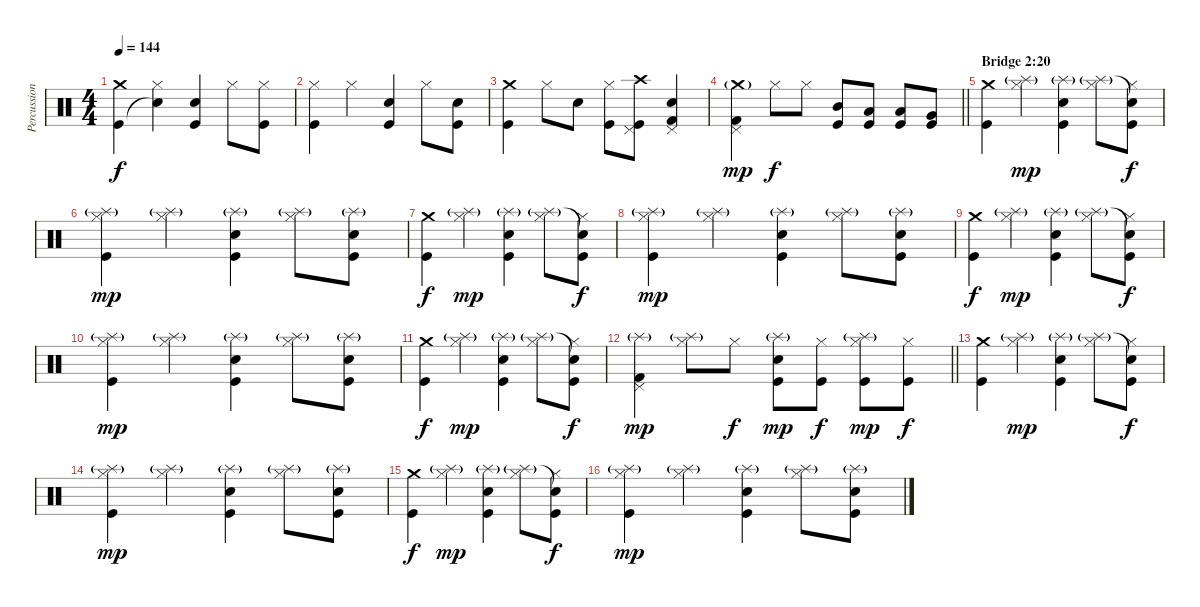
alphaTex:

\track ("Percussion" "Percussion") {instrument percussion}
\staff {score}
\articulation defaults
\ts (4 4)
\tempo 144
\clef neutral
\ks c
("Crash medium (hit)" "Kick (hit)").4{dy f} ("Hi-Hat (closed)" "Snare (hit)"{t}).4 ("Electric Snare (hit)" "Kick (hit)").4 "Hi-Hat (closed)".8 ("Hi-Hat (closed)" "Kick (hit)").8 |
("Hi-Hat (closed)" "Kick (hit)").4 "Hi-Hat (closed)".4 ("Electric Snare (hit)" "Kick (hit)").4 "Hi-Hat (closed)".8 ("Electric Snare (hit)" "Kick (hit)").8 |
("Crash medium (hit)" "Kick (hit)").4 "Hi-Hat (closed)".8 "Electric Snare (hit)".8 ("Hi-Hat (closed)" "Kick (hit)").8 ("Crash high (hit)" "Pedal Hi-Hat (hit)" "Kick (hit)").8 ("Electric Snare (hit)" "Pedal Hi-Hat (hit)" "Kick (hit) 2").4 |
\barLineRight lightlight
("Crash medium (hit)"{g} "Pedal Hi-Hat (hit)" "Kick (hit) 2").4{dy mp} "Hi-Hat (closed)".8{dy f} "Hi-Hat (closed)".8 ("Mid Tom (hit)" "Kick (hit)").8 ("Low Tom (hit)" "Kick (hit)").8 ("Low Tom (hit)" "Kick (hit)").8 ("Very Low Tom (hit)" "Kick (hit)").8 |
\section ("" "Bridge 2:20")
("Crash medium (hit)" "Kick (hit)").4 ("Hi-Hat (closed)" "Splash (hit)"{g}).4{dy mp} ("Electric Snare (hit)" "Splash (hit)"{g} "Kick (hit)").4 ("Hi-Hat (closed)" "Splash (hit)"{g}).8 ("Hi-Hat (closed)" "Snare (hit)"{t} "Kick (hit)").8{dy f} |
("Hi-Hat (closed)" "Splash (hit)"{g} "Kick (hit)").4{dy mp} ("Hi-Hat (closed)" "Splash (hit)"{g}).4 ("Electric Snare (hit)" "Splash (hit)"{g} "Kick (hit)").4 ("Hi-Hat (closed)" "Splash (hit)"{g}).8 ("Electric Snare (hit)" "Splash (hit)"{g} "Kick (hit)").8 |
("Crash medium (hit)" "Kick (hit)").4{dy f} ("Hi-Hat (closed)" "Splash (hit)"{g}).4{dy mp} ("Electric Snare (hit)" "Splash (hit)"{g} "Kick (hit)").4 ("Hi-Hat (closed)" "Splash (hit)"{g}).8 ("Hi-Hat (closed)" "Snare (hit)"{t} "Kick (hit)").8{dy f} |
("Hi-Hat (closed)" "Splash (hit)"{g} "Kick (hit)").4{dy mp} ("Hi-Hat (closed)" "Splash (hit)"{g}).4 ("Electric Snare (hit)" "Splash (hit)"{g} "Kick (hit)").4 ("Hi-Hat (closed)" "Splash (hit)"{g}).8 ("Electric Snare (hit)" "Splash (hit)"{g} "Kick (hit)").8 |
("Crash medium (hit)" "Kick (hit)").4{dy f} ("Hi-Hat (closed)" "Splash (hit)"{g}).4{dy mp} ("Electric Snare (hit)" "Splash (hit)"{g} "Kick (hit)").4 ("Hi-Hat (closed)" "Splash (hit)"{g}).8 ("Hi-Hat (closed)" "Snare (hit)"{t} "Kick (hit)").8{dy f} |
("Hi-Hat (closed)" "Splash (hit)"{g} "Kick (hit)").4{dy mp} ("Hi-Hat (closed)" "Splash (hit)"{g}).4 ("Electric Snare (hit)" "Splash (hit)"{g} "Kick (hit)").4 ("Hi-Hat (closed)" "Splash (hit)"{g}).8 ("Electric Snare (hit)" "Splash (hit)"{g} "Kick (hit)").8 |
("Crash medium (hit)" "Kick (hit)").4{dy f} ("Hi-Hat (closed)" "Splash (hit)"{g}).4{dy mp} ("Electric Snare (hit)" "Splash (hit)"{g} "Kick (hit)").4 ("Hi-Hat (closed)" "Splash (hit)"{g}).8 ("Hi-Hat (closed)" "Snare (hit)"{t} "Kick (hit)").8{dy f} |
\barLineRight lightlight
("Pedal Hi-Hat (hit)" "Splash (hit)"{g} "Kick (hit) 2").4{dy mp} ("Hi-Hat (closed)" "Splash (hit)"{g}).8 "Hi-Hat (closed)".8{dy f} ("Electric Snare (hit)" "Splash (hit)"{g} "Kick (hit)").8{dy mp} ("Hi-Hat (closed)" "Kick (hit)").8{dy f} ("Hi-Hat (closed)" "Splash (hit)"{g} "Kick (hit)").8{dy mp} ("Hi-Hat (closed)" "Kick (hit)").8{dy f} |
("Crash medium (hit)" "Kick (hit)").4 ("Hi-Hat (closed)" "Splash (hit)"{g}).4{dy mp} ("Electric Snare (hit)" "Splash (hit)"{g} "Kick (hit)").4 ("Hi-Hat (closed)" "Splash (hit)"{g}).8 ("Hi-Hat (closed)" "Snare (hit)"{t} "Kick (hit)").8{dy f} |
("Hi-Hat (closed)" "Splash (hit)"{g} "Kick (hit)").4{dy mp} ("Hi-Hat (closed)" "Splash (hit)"{g}).4 ("Electric Snare (hit)" "Splash (hit)"{g} "Kick (hit)").4 ("Hi-Hat (closed)" "Splash (hit)"{g}).8 ("Electric Snare (hit)" "Splash (hit)"{g} "Kick (hit)").8 |
("Crash medium (hit)" "Kick (hit)").4{dy f} ("Hi-Hat (closed)" "Splash (hit)"{g}).4{dy mp} ("Electric Snare (hit)" "Splash (hit)"{g} "Kick (hit)").4 ("Hi-Hat (closed)" "Splash (hit)"{g}).8 ("Hi-Hat (closed)" "Snare (hit)"{t} "Kick (hit)").8{dy f} |
("Hi-Hat (closed)" "Splash (hit)"{g} "Kick (hit)").4{dy mp} ("Hi-Hat (closed)" "Splash (hit)"{g}).4 ("Electric Snare (hit)" "Splash (hit)"{g} "Kick (hit)").4 ("Hi-Hat (closed)" "Splash (hit)"{g}).8 ("Electric Snare (hit)" "Splash (hit)"{g} "Kick (hit)").8
